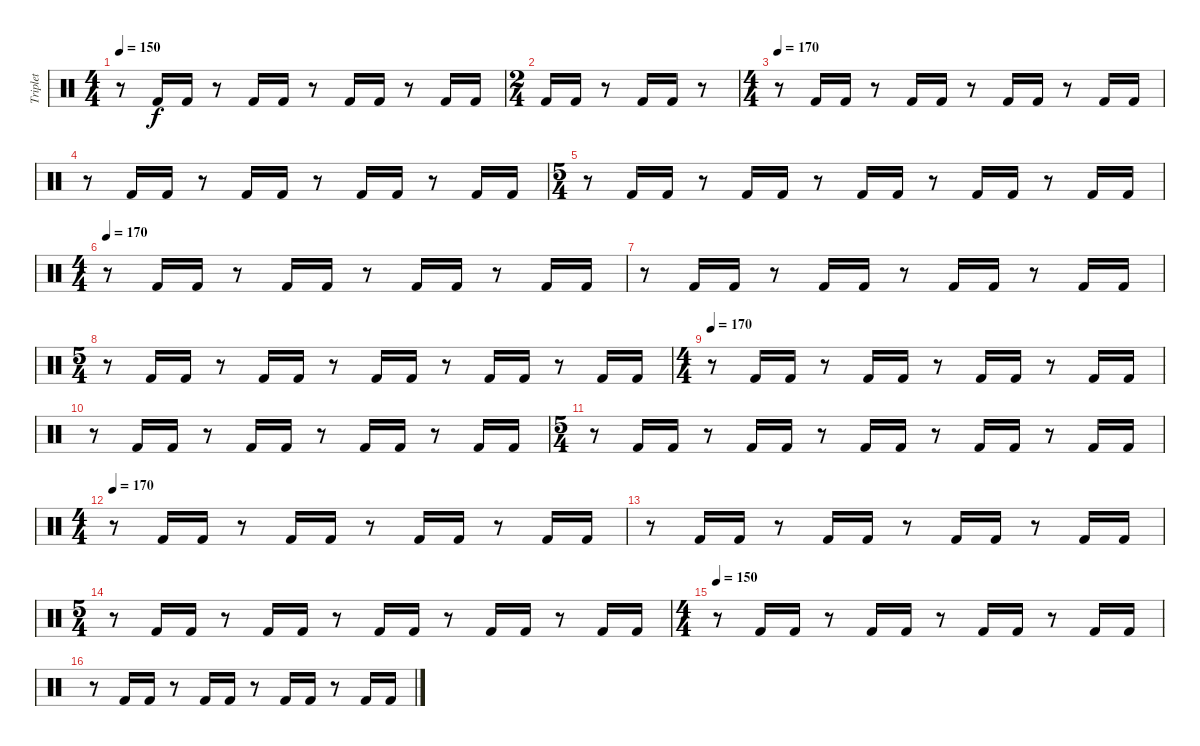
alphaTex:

\track ("Triplet" "Triplet") {instrument percussion}
\staff {score}
\articulation defaults
\ts (4 4)
\tempo 150
\clef neutral
\ks c
r.8{dy f} "Kick (hit) 2".16 "Kick (hit) 2".16 r.8 "Kick (hit) 2".16 "Kick (hit) 2".16 r.8 "Kick (hit) 2".16 "Kick (hit) 2".16 r.8 "Kick (hit) 2".16 "Kick (hit) 2".16 |
\ts (2 4)
"Kick (hit) 2".16 "Kick (hit) 2".16 r.8 "Kick (hit) 2".16 "Kick (hit) 2".16 r.8 |
\ts (4 4)
\tempo 170
r.8 "Kick (hit) 2".16 "Kick (hit) 2".16 r.8 "Kick (hit) 2".16 "Kick (hit) 2".16 r.8 "Kick (hit) 2".16 "Kick (hit) 2".16 r.8 "Kick (hit) 2".16 "Kick (hit) 2".16 |
r.8 "Kick (hit) 2".16 "Kick (hit) 2".16 r.8 "Kick (hit) 2".16 "Kick (hit) 2".16 r.8 "Kick (hit) 2".16 "Kick (hit) 2".16 r.8 "Kick (hit) 2".16 "Kick (hit) 2".16 |
\ts (5 4)
r.8 "Kick (hit) 2".16 "Kick (hit) 2".16 r.8 "Kick (hit) 2".16 "Kick (hit) 2".16 r.8 "Kick (hit) 2".16 "Kick (hit) 2".16 r.8 "Kick (hit) 2".16 "Kick (hit) 2".16 r.8 "Kick (hit) 2".16 "Kick (hit) 2".16 |
\ts (4 4)
\tempo 170
r.8 "Kick (hit) 2".16 "Kick (hit) 2".16 r.8 "Kick (hit) 2".16 "Kick (hit) 2".16 r.8 "Kick (hit) 2".16 "Kick (hit) 2".16 r.8 "Kick (hit) 2".16 "Kick (hit) 2".16 |
r.8 "Kick (hit) 2".16 "Kick (hit) 2".16 r.8 "Kick (hit) 2".16 "Kick (hit) 2".16 r.8 "Kick (hit) 2".16 "Kick (hit) 2".16 r.8 "Kick (hit) 2".16 "Kick (hit) 2".16 |
\ts (5 4)
r.8 "Kick (hit) 2".16 "Kick (hit) 2".16 r.8 "Kick (hit) 2".16 "Kick (hit) 2".16 r.8 "Kick (hit) 2".16 "Kick (hit) 2".16 r.8 "Kick (hit) 2".16 "Kick (hit) 2".16 r.8 "Kick (hit) 2".16 "Kick (hit) 2".16 |
\ts (4 4)
\tempo 170
r.8 "Kick (hit) 2".16 "Kick (hit) 2".16 r.8 "Kick (hit) 2".16 "Kick (hit) 2".16 r.8 "Kick (hit) 2".16 "Kick (hit) 2".16 r.8 "Kick (hit) 2".16 "Kick (hit) 2".16 |
r.8 "Kick (hit) 2".16 "Kick (hit) 2".16 r.8 "Kick (hit) 2".16 "Kick (hit) 2".16 r.8 "Kick (hit) 2".16 "Kick (hit) 2".16 r.8 "Kick (hit) 2".16 "Kick (hit) 2".16 |
\ts (5 4)
r.8 "Kick (hit) 2".16 "Kick (hit) 2".16 r.8 "Kick (hit) 2".16 "Kick (hit) 2".16 r.8 "Kick (hit) 2".16 "Kick (hit) 2".16 r.8 "Kick (hit) 2".16 "Kick (hit) 2".16 r.8 "Kick (hit) 2".16 "Kick (hit) 2".16 |
\ts (4 4)
\tempo 170
r.8 "Kick (hit) 2".16 "Kick (hit) 2".16 r.8 "Kick (hit) 2".16 "Kick (hit) 2".16 r.8 "Kick (hit) 2".16 "Kick (hit) 2".16 r.8 "Kick (hit) 2".16 "Kick (hit) 2".16 |
r.8 "Kick (hit) 2".16 "Kick (hit) 2".16 r.8 "Kick (hit) 2".16 "Kick (hit) 2".16 r.8 "Kick (hit) 2".16 "Kick (hit) 2".16 r.8 "Kick (hit) 2".16 "Kick (hit) 2".16 |
\ts (5 4)
r.8 "Kick (hit) 2".16 "Kick (hit) 2".16 r.8 "Kick (hit) 2".16 "Kick (hit) 2".16 r.8 "Kick (hit) 2".16 "Kick (hit) 2".16 r.8 "Kick (hit) 2".16 "Kick (hit) 2".16 r.8 "Kick (hit) 2".16 "Kick (hit) 2".16 |
\ts (4 4)
\tempo 150
r.8 "Kick (hit) 2".16 "Kick (hit) 2".16 r.8 "Kick (hit) 2".16 "Kick (hit) 2".16 r.8 "Kick (hit) 2".16 "Kick (hit) 2".16 r.8 "Kick (hit) 2".16 "Kick (hit) 2".16 |
r.8 "Kick (hit) 2".16 "Kick (hit) 2".16 r.8 "Kick (hit) 2".16 "Kick (hit) 2".16 r.8 "Kick (hit) 2".16 "Kick (hit) 2".16 r.8 "Kick (hit) 2".16 "Kick (hit) 2".16
